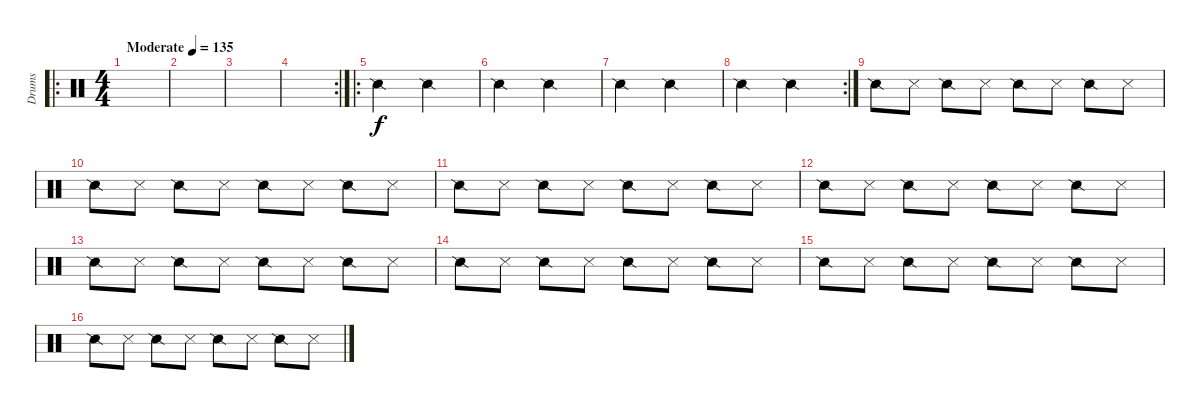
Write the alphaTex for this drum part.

\track ("Drums" "Drums") {instrument percussion}
\staff {score}
\articulation defaults
\ro
\ts (4 4)
\tempo (135 "Moderate")
\clef neutral
\ks c
|
|
|
\rc 2
|
\ro "Snare (side stick) 2".2 "Snare (side stick) 2".2
|
"Snare (side stick) 2".2 "Snare (side stick) 2".2 |
"Snare (side stick) 2".2 "Snare (side stick) 2".2 |
\rc 2 "Snare (side stick) 2".2 "Snare (side stick) 2".2
|
"Snare (side stick) 2".8 "Snare (side stick) 3".8 "Snare (side stick) 2".8 "Snare (side stick) 3".8 "Snare (side stick) 2".8 "Snare (side stick) 3".8 "Snare (side stick) 2".8 "Snare (side stick) 3".8 |
"Snare (side stick) 2".8 "Snare (side stick) 3".8 "Snare (side stick) 2".8 "Snare (side stick) 3".8 "Snare (side stick) 2".8 "Snare (side stick) 3".8 "Snare (side stick) 2".8 "Snare (side stick) 3".8 |
"Snare (side stick) 2".8 "Snare (side stick) 3".8 "Snare (side stick) 2".8 "Snare (side stick) 3".8 "Snare (side stick) 2".8 "Snare (side stick) 3".8 "Snare (side stick) 2".8 "Snare (side stick) 3".8 |
"Snare (side stick) 2".8 "Snare (side stick) 3".8 "Snare (side stick) 2".8 "Snare (side stick) 3".8 "Snare (side stick) 2".8 "Snare (side stick) 3".8 "Snare (side stick) 2".8 "Snare (side stick) 3".8 |
"Snare (side stick) 2".8 "Snare (side stick) 3".8 "Snare (side stick) 2".8 "Snare (side stick) 3".8 "Snare (side stick) 2".8 "Snare (side stick) 3".8 "Snare (side stick) 2".8 "Snare (side stick) 3".8 |
"Snare (side stick) 2".8 "Snare (side stick) 3".8 "Snare (side stick) 2".8 "Snare (side stick) 3".8 "Snare (side stick) 2".8 "Snare (side stick) 3".8 "Snare (side stick) 2".8 "Snare (side stick) 3".8 |
"Snare (side stick) 2".8 "Snare (side stick) 3".8 "Snare (side stick) 2".8 "Snare (side stick) 3".8 "Snare (side stick) 2".8 "Snare (side stick) 3".8 "Snare (side stick) 2".8 "Snare (side stick) 3".8 |
"Snare (side stick) 2".8 "Snare (side stick) 3".8 "Snare (side stick) 2".8 "Snare (side stick) 3".8 "Snare (side stick) 2".8 "Snare (side stick) 3".8 "Snare (side stick) 2".8 "Snare (side stick) 3".8
